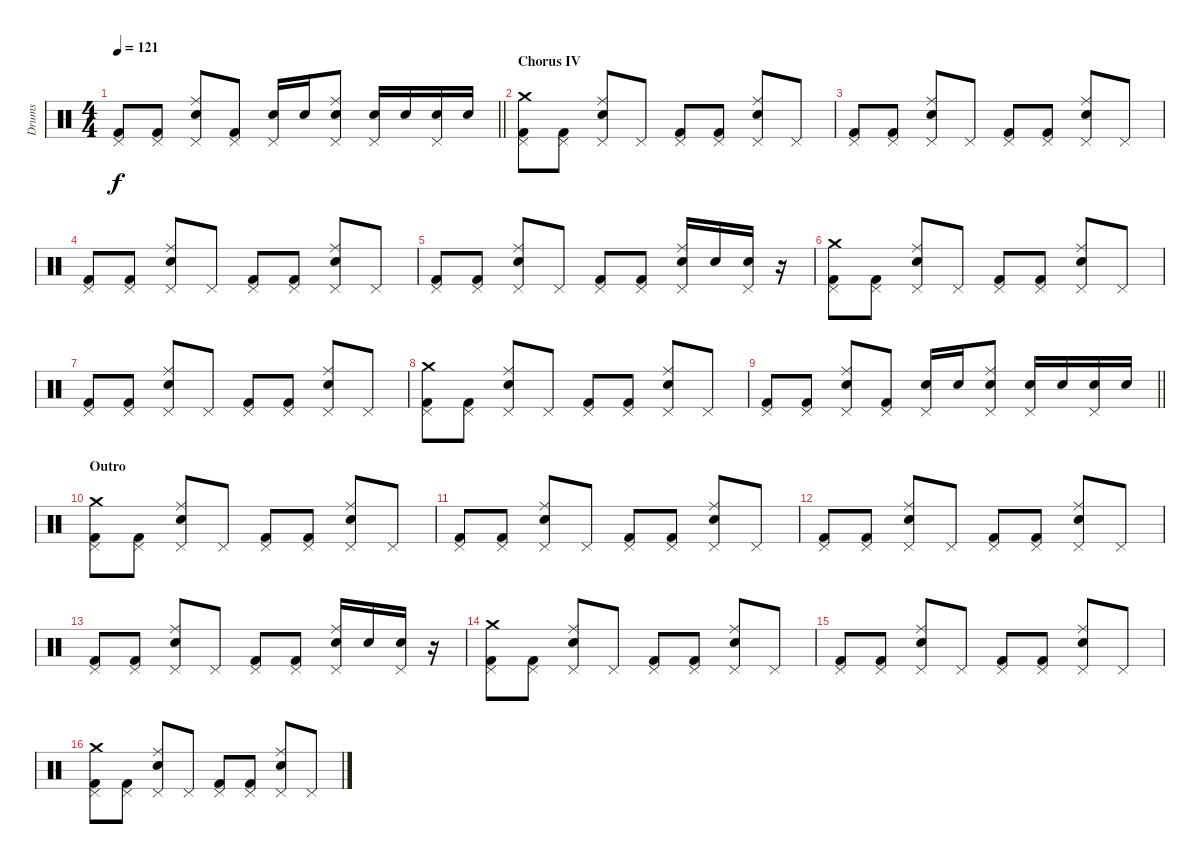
\track ("Drums" "Drums") {instrument percussion}
\staff {score}
\articulation defaults
\ts (4 4)
\tempo 121
\clef neutral
\barLineRight lightlight
\ks c
("Pedal Hi-Hat (hit)" "Kick (hit) 2").8{dy f} ("Pedal Hi-Hat (hit)" "Kick (hit) 2").8 ("Pedal Hi-Hat (hit)" "Ride (middle)" "Snare (hit) 2").8 ("Pedal Hi-Hat (hit)" "Kick (hit) 2").8 ("Pedal Hi-Hat (hit)" "Snare (hit) 2").16 "Snare (hit) 2".16 ("Pedal Hi-Hat (hit)" "Ride (middle)" "Snare (hit) 2").8 ("Pedal Hi-Hat (hit)" "Snare (hit) 2").16 "Snare (hit) 2".16 ("Pedal Hi-Hat (hit)" "Snare (hit) 2").16 "Snare (hit) 2".16 |
\section ("" "Chorus IV")
("Pedal Hi-Hat (hit)" "Crash medium (hit)" "Kick (hit) 2").8 ("Pedal Hi-Hat (hit)" "Kick (hit) 2").8 ("Pedal Hi-Hat (hit)" "Ride (middle)" "Snare (hit) 2").8 "Pedal Hi-Hat (hit)".8 ("Pedal Hi-Hat (hit)" "Kick (hit) 2").8 ("Pedal Hi-Hat (hit)" "Kick (hit) 2").8 ("Pedal Hi-Hat (hit)" "Ride (middle)" "Snare (hit) 2").8 "Pedal Hi-Hat (hit)".8 |
("Pedal Hi-Hat (hit)" "Kick (hit) 2").8 ("Pedal Hi-Hat (hit)" "Kick (hit) 2").8 ("Pedal Hi-Hat (hit)" "Ride (middle)" "Snare (hit) 2").8 "Pedal Hi-Hat (hit)".8 ("Pedal Hi-Hat (hit)" "Kick (hit) 2").8 ("Pedal Hi-Hat (hit)" "Kick (hit) 2").8 ("Pedal Hi-Hat (hit)" "Ride (middle)" "Snare (hit) 2").8 "Pedal Hi-Hat (hit)".8 |
("Pedal Hi-Hat (hit)" "Kick (hit) 2").8 ("Pedal Hi-Hat (hit)" "Kick (hit) 2").8 ("Pedal Hi-Hat (hit)" "Ride (middle)" "Snare (hit) 2").8 "Pedal Hi-Hat (hit)".8 ("Pedal Hi-Hat (hit)" "Kick (hit) 2").8 ("Pedal Hi-Hat (hit)" "Kick (hit) 2").8 ("Pedal Hi-Hat (hit)" "Ride (middle)" "Snare (hit) 2").8 "Pedal Hi-Hat (hit)".8 |
("Pedal Hi-Hat (hit)" "Kick (hit) 2").8 ("Pedal Hi-Hat (hit)" "Kick (hit) 2").8 ("Pedal Hi-Hat (hit)" "Ride (middle)" "Snare (hit) 2").8 "Pedal Hi-Hat (hit)".8 ("Pedal Hi-Hat (hit)" "Kick (hit) 2").8 ("Pedal Hi-Hat (hit)" "Kick (hit) 2").8 ("Pedal Hi-Hat (hit)" "Ride (middle)" "Snare (hit) 2").16 "Snare (hit) 2".16 ("Pedal Hi-Hat (hit)" "Snare (hit) 2").16 r.16 |
("Pedal Hi-Hat (hit)" "Crash medium (hit)" "Kick (hit) 2").8 ("Pedal Hi-Hat (hit)" "Kick (hit) 2").8 ("Pedal Hi-Hat (hit)" "Ride (middle)" "Snare (hit) 2").8 "Pedal Hi-Hat (hit)".8 ("Pedal Hi-Hat (hit)" "Kick (hit) 2").8 ("Pedal Hi-Hat (hit)" "Kick (hit) 2").8 ("Pedal Hi-Hat (hit)" "Ride (middle)" "Snare (hit) 2").8 "Pedal Hi-Hat (hit)".8 |
("Pedal Hi-Hat (hit)" "Kick (hit) 2").8 ("Pedal Hi-Hat (hit)" "Kick (hit) 2").8 ("Pedal Hi-Hat (hit)" "Ride (middle)" "Snare (hit) 2").8 "Pedal Hi-Hat (hit)".8 ("Pedal Hi-Hat (hit)" "Kick (hit) 2").8 ("Pedal Hi-Hat (hit)" "Kick (hit) 2").8 ("Pedal Hi-Hat (hit)" "Ride (middle)" "Snare (hit) 2").8 "Pedal Hi-Hat (hit)".8 |
("Pedal Hi-Hat (hit)" "Crash medium (hit)" "Kick (hit) 2").8 ("Pedal Hi-Hat (hit)" "Kick (hit) 2").8 ("Pedal Hi-Hat (hit)" "Ride (middle)" "Snare (hit) 2").8 "Pedal Hi-Hat (hit)".8 ("Pedal Hi-Hat (hit)" "Kick (hit) 2").8 ("Pedal Hi-Hat (hit)" "Kick (hit) 2").8 ("Pedal Hi-Hat (hit)" "Ride (middle)" "Snare (hit) 2").8 "Pedal Hi-Hat (hit)".8 |
\barLineRight lightlight
("Pedal Hi-Hat (hit)" "Kick (hit) 2").8 ("Pedal Hi-Hat (hit)" "Kick (hit) 2").8 ("Pedal Hi-Hat (hit)" "Ride (middle)" "Snare (hit) 2").8 ("Pedal Hi-Hat (hit)" "Kick (hit) 2").8 ("Pedal Hi-Hat (hit)" "Snare (hit) 2").16 "Snare (hit) 2".16 ("Pedal Hi-Hat (hit)" "Ride (middle)" "Snare (hit) 2").8 ("Pedal Hi-Hat (hit)" "Snare (hit) 2").16 "Snare (hit) 2".16 ("Pedal Hi-Hat (hit)" "Snare (hit) 2").16 "Snare (hit) 2".16 |
\section ("" "Outro")
("Pedal Hi-Hat (hit)" "Crash medium (hit)" "Kick (hit) 2").8 ("Pedal Hi-Hat (hit)" "Kick (hit) 2").8 ("Pedal Hi-Hat (hit)" "Ride (middle)" "Snare (hit) 2").8 "Pedal Hi-Hat (hit)".8 ("Pedal Hi-Hat (hit)" "Kick (hit) 2").8 ("Pedal Hi-Hat (hit)" "Kick (hit) 2").8 ("Pedal Hi-Hat (hit)" "Ride (middle)" "Snare (hit) 2").8 "Pedal Hi-Hat (hit)".8 |
("Pedal Hi-Hat (hit)" "Kick (hit) 2").8 ("Pedal Hi-Hat (hit)" "Kick (hit) 2").8 ("Pedal Hi-Hat (hit)" "Ride (middle)" "Snare (hit) 2").8 "Pedal Hi-Hat (hit)".8 ("Pedal Hi-Hat (hit)" "Kick (hit) 2").8 ("Pedal Hi-Hat (hit)" "Kick (hit) 2").8 ("Pedal Hi-Hat (hit)" "Ride (middle)" "Snare (hit) 2").8 "Pedal Hi-Hat (hit)".8 |
("Pedal Hi-Hat (hit)" "Kick (hit) 2").8 ("Pedal Hi-Hat (hit)" "Kick (hit) 2").8 ("Pedal Hi-Hat (hit)" "Ride (middle)" "Snare (hit) 2").8 "Pedal Hi-Hat (hit)".8 ("Pedal Hi-Hat (hit)" "Kick (hit) 2").8 ("Pedal Hi-Hat (hit)" "Kick (hit) 2").8 ("Pedal Hi-Hat (hit)" "Ride (middle)" "Snare (hit) 2").8 "Pedal Hi-Hat (hit)".8 |
("Pedal Hi-Hat (hit)" "Kick (hit) 2").8 ("Pedal Hi-Hat (hit)" "Kick (hit) 2").8 ("Pedal Hi-Hat (hit)" "Ride (middle)" "Snare (hit) 2").8 "Pedal Hi-Hat (hit)".8 ("Pedal Hi-Hat (hit)" "Kick (hit) 2").8 ("Pedal Hi-Hat (hit)" "Kick (hit) 2").8 ("Pedal Hi-Hat (hit)" "Ride (middle)" "Snare (hit) 2").16 "Snare (hit) 2".16 ("Pedal Hi-Hat (hit)" "Snare (hit) 2").16 r.16 |
("Pedal Hi-Hat (hit)" "Crash medium (hit)" "Kick (hit) 2").8 ("Pedal Hi-Hat (hit)" "Kick (hit) 2").8 ("Pedal Hi-Hat (hit)" "Ride (middle)" "Snare (hit) 2").8 "Pedal Hi-Hat (hit)".8 ("Pedal Hi-Hat (hit)" "Kick (hit) 2").8 ("Pedal Hi-Hat (hit)" "Kick (hit) 2").8 ("Pedal Hi-Hat (hit)" "Ride (middle)" "Snare (hit) 2").8 "Pedal Hi-Hat (hit)".8 |
("Pedal Hi-Hat (hit)" "Kick (hit) 2").8 ("Pedal Hi-Hat (hit)" "Kick (hit) 2").8 ("Pedal Hi-Hat (hit)" "Ride (middle)" "Snare (hit) 2").8 "Pedal Hi-Hat (hit)".8 ("Pedal Hi-Hat (hit)" "Kick (hit) 2").8 ("Pedal Hi-Hat (hit)" "Kick (hit) 2").8 ("Pedal Hi-Hat (hit)" "Ride (middle)" "Snare (hit) 2").8 "Pedal Hi-Hat (hit)".8 |
("Pedal Hi-Hat (hit)" "Crash medium (hit)" "Kick (hit) 2").8 ("Pedal Hi-Hat (hit)" "Kick (hit) 2").8 ("Pedal Hi-Hat (hit)" "Ride (middle)" "Snare (hit) 2").8 "Pedal Hi-Hat (hit)".8 ("Pedal Hi-Hat (hit)" "Kick (hit) 2").8 ("Pedal Hi-Hat (hit)" "Kick (hit) 2").8 ("Pedal Hi-Hat (hit)" "Ride (middle)" "Snare (hit) 2").8 "Pedal Hi-Hat (hit)".8
